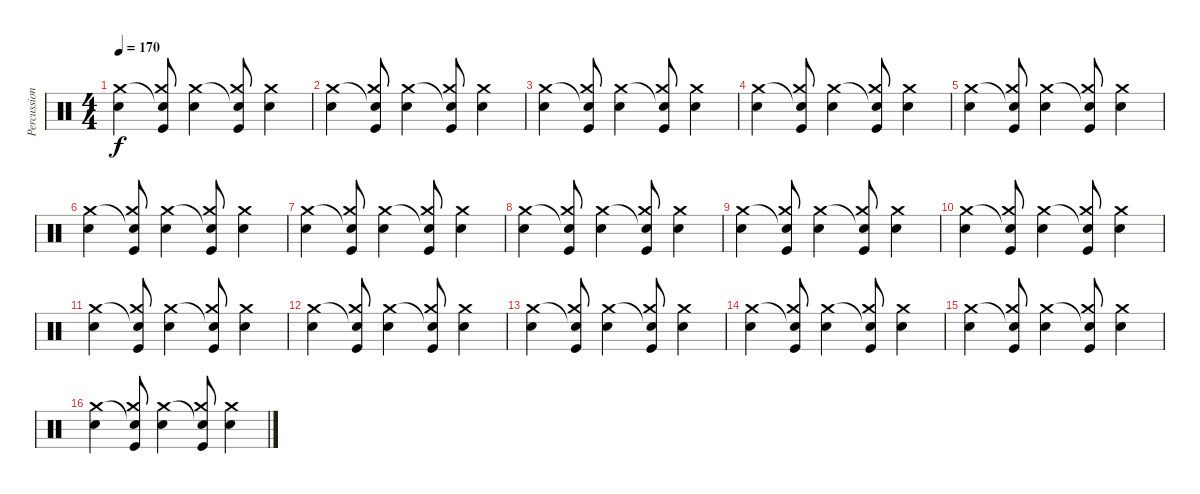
\track ("Percussions" "Percussion") {instrument percussion}
\staff {score}
\articulation defaults
\ts (4 4)
\tempo 170
\clef neutral
\ks c
("Snare (hit) 2" "Crash medium (hit)").4{dy f} ("Kick (hit)" "Snare (hit)"{t} "Crash medium (hit)").8 ("Snare (hit) 2" "Crash medium (hit)").4 ("Kick (hit)" "Snare (hit)"{t} "Crash medium (hit)").8 ("Snare (hit) 2" "Crash medium (hit)").4 |
("Snare (hit) 2" "Crash medium (hit)").4 ("Kick (hit)" "Snare (hit)"{t} "Crash medium (hit)").8 ("Snare (hit) 2" "Crash medium (hit)").4 ("Kick (hit)" "Snare (hit)"{t} "Crash medium (hit)").8 ("Snare (hit) 2" "Crash medium (hit)").4 |
("Snare (hit) 2" "Crash medium (hit)").4 ("Kick (hit)" "Snare (hit)"{t} "Crash medium (hit)").8 ("Snare (hit) 2" "Crash medium (hit)").4 ("Kick (hit)" "Snare (hit)"{t} "Crash medium (hit)").8 ("Snare (hit) 2" "Crash medium (hit)").4 |
("Snare (hit) 2" "Crash medium (hit)").4 ("Kick (hit)" "Snare (hit)"{t} "Crash medium (hit)").8 ("Snare (hit) 2" "Crash medium (hit)").4 ("Kick (hit)" "Snare (hit)"{t} "Crash medium (hit)").8 ("Snare (hit) 2" "Crash medium (hit)").4 |
("Snare (hit) 2" "Crash medium (hit)").4 ("Kick (hit)" "Snare (hit)"{t} "Crash medium (hit)").8 ("Snare (hit) 2" "Crash medium (hit)").4 ("Kick (hit)" "Snare (hit)"{t} "Crash medium (hit)").8 ("Snare (hit) 2" "Crash medium (hit)").4 |
("Snare (hit) 2" "Crash medium (hit)").4 ("Kick (hit)" "Snare (hit)"{t} "Crash medium (hit)").8 ("Snare (hit) 2" "Crash medium (hit)").4 ("Kick (hit)" "Snare (hit)"{t} "Crash medium (hit)").8 ("Snare (hit) 2" "Crash medium (hit)").4 |
("Snare (hit) 2" "Crash medium (hit)").4 ("Kick (hit)" "Snare (hit)"{t} "Crash medium (hit)").8 ("Snare (hit) 2" "Crash medium (hit)").4 ("Kick (hit)" "Snare (hit)"{t} "Crash medium (hit)").8 ("Snare (hit) 2" "Crash medium (hit)").4 |
("Snare (hit) 2" "Crash medium (hit)").4 ("Kick (hit)" "Snare (hit)"{t} "Crash medium (hit)").8 ("Snare (hit) 2" "Crash medium (hit)").4 ("Kick (hit)" "Snare (hit)"{t} "Crash medium (hit)").8 ("Snare (hit) 2" "Crash medium (hit)").4 |
("Snare (hit) 2" "Crash medium (hit)").4 ("Kick (hit)" "Snare (hit)"{t} "Crash medium (hit)").8 ("Snare (hit) 2" "Crash medium (hit)").4 ("Kick (hit)" "Snare (hit)"{t} "Crash medium (hit)").8 ("Snare (hit) 2" "Crash medium (hit)").4 |
("Snare (hit) 2" "Crash medium (hit)").4 ("Kick (hit)" "Snare (hit)"{t} "Crash medium (hit)").8 ("Snare (hit) 2" "Crash medium (hit)").4 ("Kick (hit)" "Snare (hit)"{t} "Crash medium (hit)").8 ("Snare (hit) 2" "Crash medium (hit)").4 |
("Snare (hit) 2" "Crash medium (hit)").4 ("Kick (hit)" "Snare (hit)"{t} "Crash medium (hit)").8 ("Snare (hit) 2" "Crash medium (hit)").4 ("Kick (hit)" "Snare (hit)"{t} "Crash medium (hit)").8 ("Snare (hit) 2" "Crash medium (hit)").4 |
("Snare (hit) 2" "Crash medium (hit)").4 ("Kick (hit)" "Snare (hit)"{t} "Crash medium (hit)").8 ("Snare (hit) 2" "Crash medium (hit)").4 ("Kick (hit)" "Snare (hit)"{t} "Crash medium (hit)").8 ("Snare (hit) 2" "Crash medium (hit)").4 |
("Snare (hit) 2" "Crash medium (hit)").4 ("Kick (hit)" "Snare (hit)"{t} "Crash medium (hit)").8 ("Snare (hit) 2" "Crash medium (hit)").4 ("Kick (hit)" "Snare (hit)"{t} "Crash medium (hit)").8 ("Snare (hit) 2" "Crash medium (hit)").4 |
("Snare (hit) 2" "Crash medium (hit)").4 ("Kick (hit)" "Snare (hit)"{t} "Crash medium (hit)").8 ("Snare (hit) 2" "Crash medium (hit)").4 ("Kick (hit)" "Snare (hit)"{t} "Crash medium (hit)").8 ("Snare (hit) 2" "Crash medium (hit)").4 |
("Snare (hit) 2" "Crash medium (hit)").4 ("Kick (hit)" "Snare (hit)"{t} "Crash medium (hit)").8 ("Snare (hit) 2" "Crash medium (hit)").4 ("Kick (hit)" "Snare (hit)"{t} "Crash medium (hit)").8 ("Snare (hit) 2" "Crash medium (hit)").4 |
("Snare (hit) 2" "Crash medium (hit)").4 ("Kick (hit)" "Snare (hit)"{t} "Crash medium (hit)").8 ("Snare (hit) 2" "Crash medium (hit)").4 ("Kick (hit)" "Snare (hit)"{t} "Crash medium (hit)").8 ("Snare (hit) 2" "Crash medium (hit)").4
